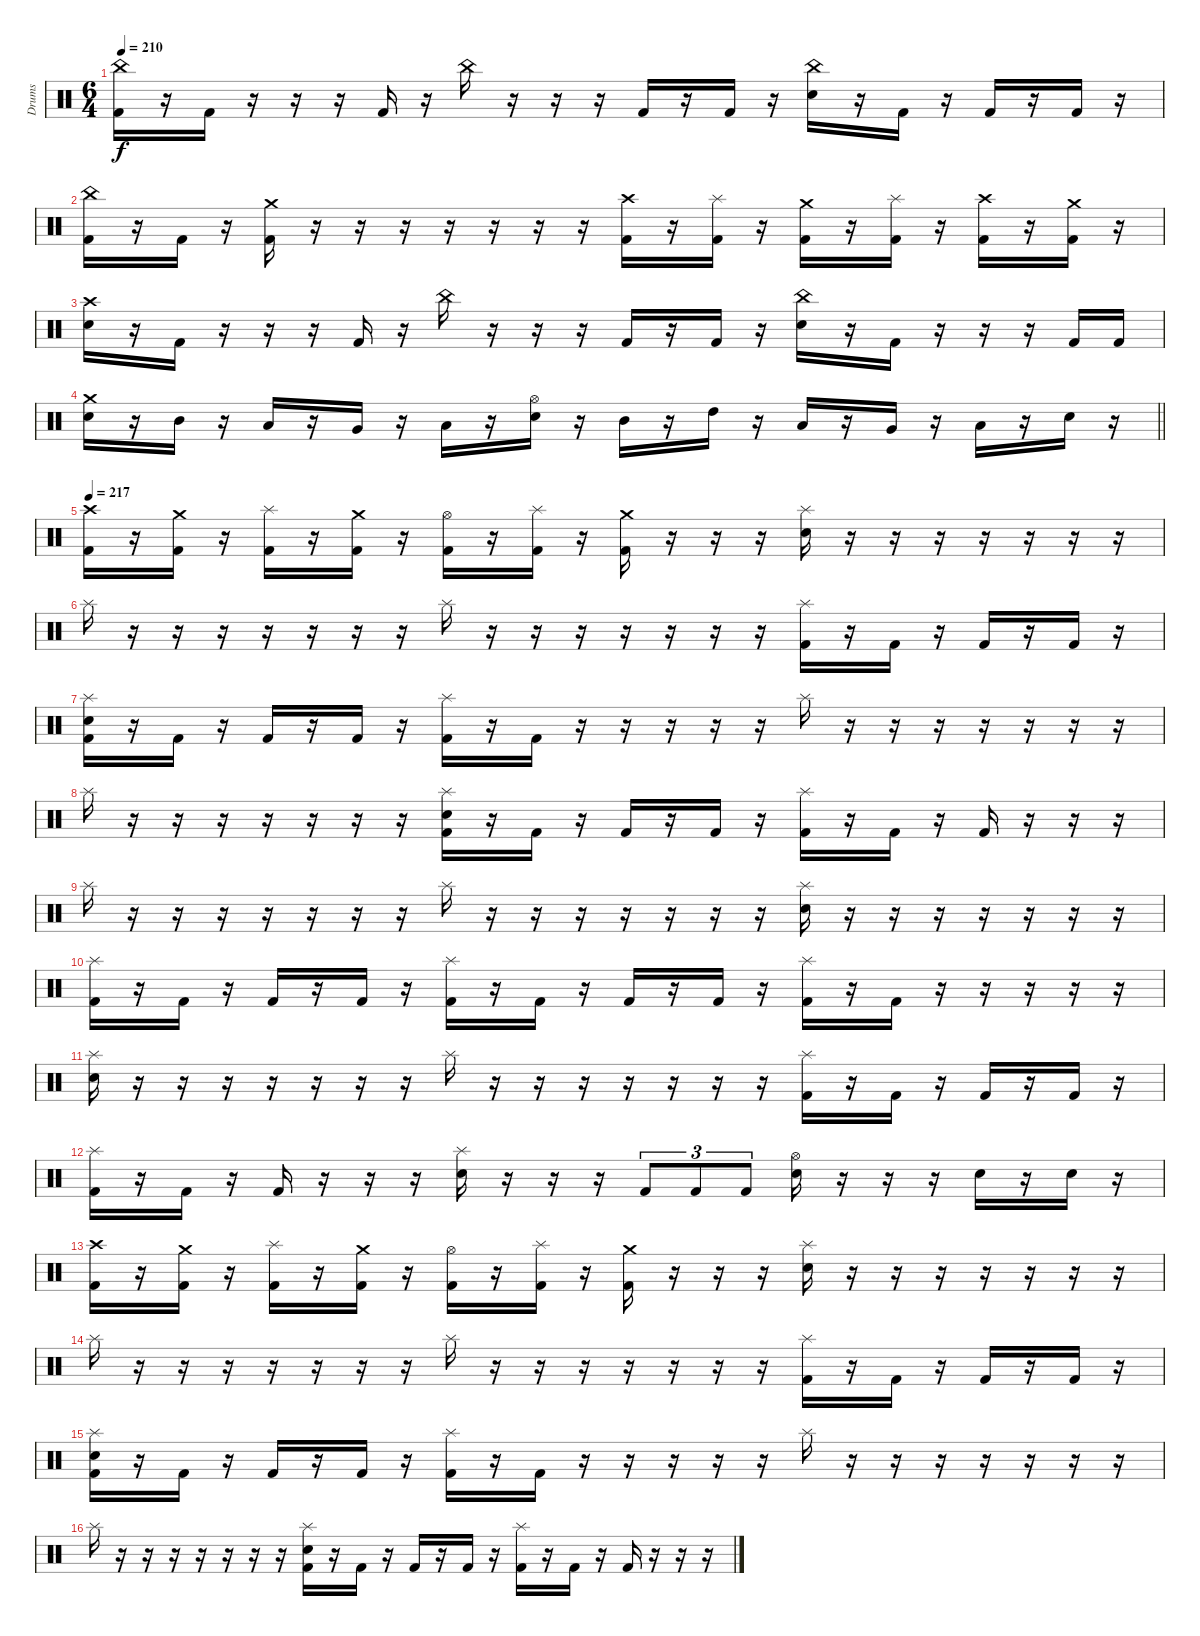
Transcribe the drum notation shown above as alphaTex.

\track ("Drums" "Drums") {instrument percussion}
\staff {score}
\articulation defaults
\ts (6 4)
\tempo 210
\clef neutral
\ks c
("China (hit)" "Kick (hit) 2").16{dy f} r.16 "Kick (hit) 2".16 r.16 r.16 r.16 "Kick (hit) 2".16 r.16 "China (hit)".16 r.16 r.16 r.16 "Kick (hit) 2".16 r.16 "Kick (hit) 2".16 r.16 ("China (hit)" "Electric Snare (hit)").16 r.16 "Kick (hit) 2".16 r.16 "Kick (hit) 2".16 r.16 "Kick (hit) 2".16 r.16 |
("China (hit)" "Kick (hit) 2").16 r.16 "Kick (hit) 2".16 r.16 ("Crash medium (hit)" "Kick (hit) 2").16 r.16 r.16 r.16 r.16 r.16 r.16 r.16 ("Crash high (hit)" "Kick (hit) 2").16 r.16 ("Splash (hit)" "Kick (hit) 2").16 r.16 ("Crash medium (hit)" "Kick (hit) 2").16 r.16 ("Splash (hit)" "Kick (hit) 2").16 r.16 ("Crash high (hit)" "Kick (hit) 2").16 r.16 ("Crash medium (hit)" "Kick (hit) 2").16 r.16 |
("Crash high (hit)" "Electric Snare (hit)").16 r.16 "Kick (hit) 2".16 r.16 r.16 r.16 "Kick (hit) 2".16 r.16 "China (hit)".16 r.16 r.16 r.16 "Kick (hit) 2".16 r.16 "Kick (hit) 2".16 r.16 ("China (hit)" "Electric Snare (hit)").16 r.16 "Kick (hit) 2".16 r.16 r.16 r.16 "Kick (hit) 2".16 "Kick (hit) 2".16 |
\barLineRight lightlight
("Crash medium (hit)" "Electric Snare (hit)").16 r.16 "Mid Tom (hit)".16 r.16 "Low Tom (hit)".16 r.16 "Very Low Tom (hit)".16 r.16 "Low Floor Tom (hit)".16 r.16 ("Hi-Hat (open)" "Electric Snare (hit)").16 r.16 "Mid Tom (hit)".16 r.16 "High Tom (hit)".16 r.16 "Low Tom (hit)".16 r.16 "Very Low Tom (hit)".16 r.16 "Low Floor Tom (hit)".16 r.16 "Electric Snare (hit)".16 r.16 |
\section ("" "")
\tempo 217
("Crash high (hit)" "Kick (hit) 2").16 r.16 ("Crash medium (hit)" "Kick (hit) 2").16 r.16 ("Splash (hit)" "Kick (hit) 2").16 r.16 ("Crash medium (hit)" "Kick (hit) 2").16 r.16 ("Hi-Hat (open)" "Kick (hit) 2").16 r.16 ("Splash (hit)" "Kick (hit) 2").16 r.16 ("Crash medium (hit)" "Kick (hit) 2").16 r.16 r.16 r.16 ("Splash (hit)" "Electric Snare (hit)").16 r.16 r.16 r.16 r.16 r.16 r.16 r.16 |
"Splash (hit)".16 r.16 r.16 r.16 r.16 r.16 r.16 r.16 "Splash (hit)".16 r.16 r.16 r.16 r.16 r.16 r.16 r.16 ("Splash (hit)" "Kick (hit) 2").16 r.16 "Kick (hit) 2".16 r.16 "Kick (hit) 2".16 r.16 "Kick (hit) 2".16 r.16 |
("Splash (hit)" "Electric Snare (hit)" "Kick (hit) 2").16 r.16 "Kick (hit) 2".16 r.16 "Kick (hit) 2".16 r.16 "Kick (hit) 2".16 r.16 ("Splash (hit)" "Kick (hit) 2").16 r.16 "Kick (hit) 2".16 r.16 r.16 r.16 r.16 r.16 "Splash (hit)".16 r.16 r.16 r.16 r.16 r.16 r.16 r.16 |
"Splash (hit)".16 r.16 r.16 r.16 r.16 r.16 r.16 r.16 ("Splash (hit)" "Electric Snare (hit)" "Kick (hit) 2").16 r.16 "Kick (hit) 2".16 r.16 "Kick (hit) 2".16 r.16 "Kick (hit) 2".16 r.16 ("Splash (hit)" "Kick (hit) 2").16 r.16 "Kick (hit) 2".16 r.16 "Kick (hit) 2".16 r.16 r.16 r.16 |
"Splash (hit)".16 r.16 r.16 r.16 r.16 r.16 r.16 r.16 "Splash (hit)".16 r.16 r.16 r.16 r.16 r.16 r.16 r.16 ("Splash (hit)" "Electric Snare (hit)").16 r.16 r.16 r.16 r.16 r.16 r.16 r.16 |
("Splash (hit)" "Kick (hit) 2").16 r.16 "Kick (hit) 2".16 r.16 "Kick (hit) 2".16 r.16 "Kick (hit) 2".16 r.16 ("Splash (hit)" "Kick (hit) 2").16 r.16 "Kick (hit) 2".16 r.16 "Kick (hit) 2".16 r.16 "Kick (hit) 2".16 r.16 ("Splash (hit)" "Kick (hit) 2").16 r.16 "Kick (hit) 2".16 r.16 r.16 r.16 r.16 r.16 |
("Splash (hit)" "Electric Snare (hit)").16 r.16 r.16 r.16 r.16 r.16 r.16 r.16 "Splash (hit)".16 r.16 r.16 r.16 r.16 r.16 r.16 r.16 ("Splash (hit)" "Kick (hit) 2").16 r.16 "Kick (hit) 2".16 r.16 "Kick (hit) 2".16 r.16 "Kick (hit) 2".16 r.16 |
("Splash (hit)" "Kick (hit) 2").16 r.16 "Kick (hit) 2".16 r.16 "Kick (hit) 2".16 r.16 r.16 r.16 ("Splash (hit)" "Electric Snare (hit)").16 r.16 r.16 r.16 "Kick (hit) 2".8{tu (3 2)} "Kick (hit) 2".8{tu (3 2)} "Kick (hit) 2".8{tu (3 2)} ("Hi-Hat (open)" "Electric Snare (hit)").16 r.16 r.16 r.16 "Electric Snare (hit)".16 r.16 "Electric Snare (hit)".16 r.16 |
("Crash high (hit)" "Kick (hit) 2").16 r.16 ("Crash medium (hit)" "Kick (hit) 2").16 r.16 ("Splash (hit)" "Kick (hit) 2").16 r.16 ("Crash medium (hit)" "Kick (hit) 2").16 r.16 ("Hi-Hat (open)" "Kick (hit) 2").16 r.16 ("Splash (hit)" "Kick (hit) 2").16 r.16 ("Crash medium (hit)" "Kick (hit) 2").16 r.16 r.16 r.16 ("Splash (hit)" "Electric Snare (hit)").16 r.16 r.16 r.16 r.16 r.16 r.16 r.16 |
"Splash (hit)".16 r.16 r.16 r.16 r.16 r.16 r.16 r.16 "Splash (hit)".16 r.16 r.16 r.16 r.16 r.16 r.16 r.16 ("Splash (hit)" "Kick (hit) 2").16 r.16 "Kick (hit) 2".16 r.16 "Kick (hit) 2".16 r.16 "Kick (hit) 2".16 r.16 |
("Splash (hit)" "Electric Snare (hit)" "Kick (hit) 2").16 r.16 "Kick (hit) 2".16 r.16 "Kick (hit) 2".16 r.16 "Kick (hit) 2".16 r.16 ("Splash (hit)" "Kick (hit) 2").16 r.16 "Kick (hit) 2".16 r.16 r.16 r.16 r.16 r.16 "Splash (hit)".16 r.16 r.16 r.16 r.16 r.16 r.16 r.16 |
"Splash (hit)".16 r.16 r.16 r.16 r.16 r.16 r.16 r.16 ("Splash (hit)" "Electric Snare (hit)" "Kick (hit) 2").16 r.16 "Kick (hit) 2".16 r.16 "Kick (hit) 2".16 r.16 "Kick (hit) 2".16 r.16 ("Splash (hit)" "Kick (hit) 2").16 r.16 "Kick (hit) 2".16 r.16 "Kick (hit) 2".16 r.16 r.16 r.16
